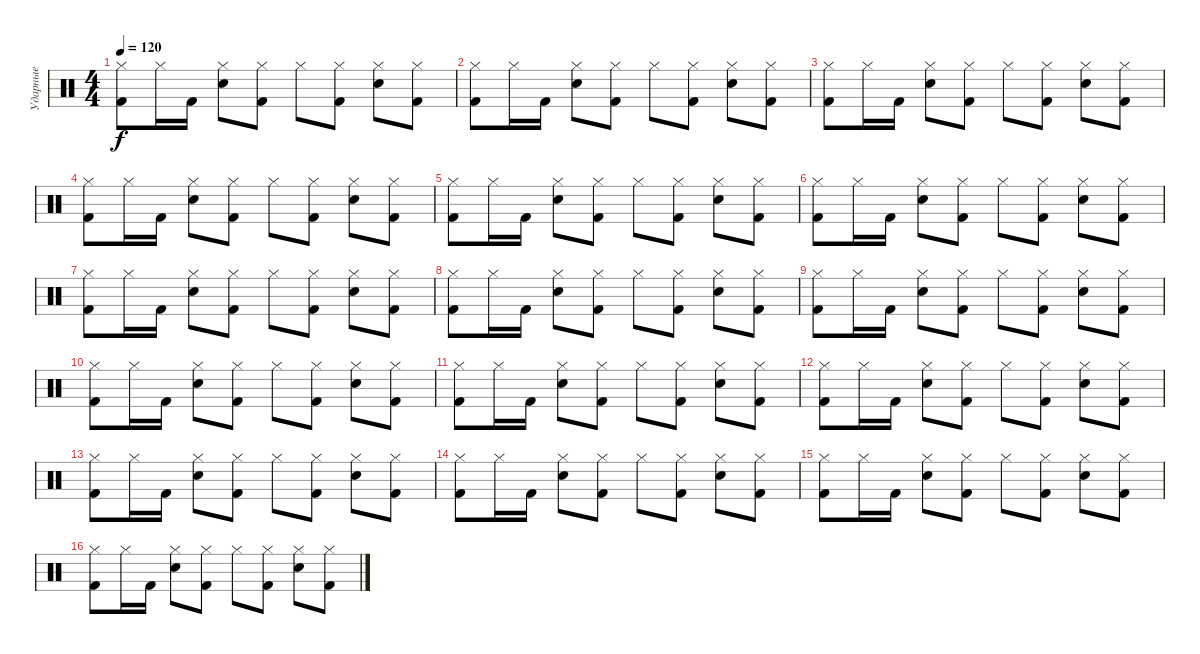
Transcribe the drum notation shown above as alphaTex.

\track ("Ударные" "Ударные") {instrument percussion}
\staff {score}
\articulation defaults
\ts (4 4)
\tempo 120
\clef neutral
\ks c
("Hi-Hat (closed)" "Kick (hit) 2").8{dy f} "Hi-Hat (closed)".16 "Kick (hit) 2".16 ("Hi-Hat (closed)" "Electric Snare (hit)").8 ("Hi-Hat (closed)" "Kick (hit) 2").8 "Hi-Hat (closed)".8 ("Hi-Hat (closed)" "Kick (hit) 2").8 ("Hi-Hat (closed)" "Electric Snare (hit)").8 ("Hi-Hat (closed)" "Kick (hit) 2").8 |
("Hi-Hat (closed)" "Kick (hit) 2").8 "Hi-Hat (closed)".16 "Kick (hit) 2".16 ("Hi-Hat (closed)" "Electric Snare (hit)").8 ("Hi-Hat (closed)" "Kick (hit) 2").8 "Hi-Hat (closed)".8 ("Hi-Hat (closed)" "Kick (hit) 2").8 ("Hi-Hat (closed)" "Electric Snare (hit)").8 ("Hi-Hat (closed)" "Kick (hit) 2").8 |
("Hi-Hat (closed)" "Kick (hit) 2").8 "Hi-Hat (closed)".16 "Kick (hit) 2".16 ("Hi-Hat (closed)" "Electric Snare (hit)").8 ("Hi-Hat (closed)" "Kick (hit) 2").8 "Hi-Hat (closed)".8 ("Hi-Hat (closed)" "Kick (hit) 2").8 ("Hi-Hat (closed)" "Electric Snare (hit)").8 ("Hi-Hat (closed)" "Kick (hit) 2").8 |
("Hi-Hat (closed)" "Kick (hit) 2").8 "Hi-Hat (closed)".16 "Kick (hit) 2".16 ("Hi-Hat (closed)" "Electric Snare (hit)").8 ("Hi-Hat (closed)" "Kick (hit) 2").8 "Hi-Hat (closed)".8 ("Hi-Hat (closed)" "Kick (hit) 2").8 ("Hi-Hat (closed)" "Electric Snare (hit)").8 ("Hi-Hat (closed)" "Kick (hit) 2").8 |
("Hi-Hat (closed)" "Kick (hit) 2").8 "Hi-Hat (closed)".16 "Kick (hit) 2".16 ("Hi-Hat (closed)" "Electric Snare (hit)").8 ("Hi-Hat (closed)" "Kick (hit) 2").8 "Hi-Hat (closed)".8 ("Hi-Hat (closed)" "Kick (hit) 2").8 ("Hi-Hat (closed)" "Electric Snare (hit)").8 ("Hi-Hat (closed)" "Kick (hit) 2").8 |
("Hi-Hat (closed)" "Kick (hit) 2").8 "Hi-Hat (closed)".16 "Kick (hit) 2".16 ("Hi-Hat (closed)" "Electric Snare (hit)").8 ("Hi-Hat (closed)" "Kick (hit) 2").8 "Hi-Hat (closed)".8 ("Hi-Hat (closed)" "Kick (hit) 2").8 ("Hi-Hat (closed)" "Electric Snare (hit)").8 ("Hi-Hat (closed)" "Kick (hit) 2").8 |
("Hi-Hat (closed)" "Kick (hit) 2").8 "Hi-Hat (closed)".16 "Kick (hit) 2".16 ("Hi-Hat (closed)" "Electric Snare (hit)").8 ("Hi-Hat (closed)" "Kick (hit) 2").8 "Hi-Hat (closed)".8 ("Hi-Hat (closed)" "Kick (hit) 2").8 ("Hi-Hat (closed)" "Electric Snare (hit)").8 ("Hi-Hat (closed)" "Kick (hit) 2").8 |
("Hi-Hat (closed)" "Kick (hit) 2").8 "Hi-Hat (closed)".16 "Kick (hit) 2".16 ("Hi-Hat (closed)" "Electric Snare (hit)").8 ("Hi-Hat (closed)" "Kick (hit) 2").8 "Hi-Hat (closed)".8 ("Hi-Hat (closed)" "Kick (hit) 2").8 ("Hi-Hat (closed)" "Electric Snare (hit)").8 ("Hi-Hat (closed)" "Kick (hit) 2").8 |
("Hi-Hat (closed)" "Kick (hit) 2").8 "Hi-Hat (closed)".16 "Kick (hit) 2".16 ("Hi-Hat (closed)" "Electric Snare (hit)").8 ("Hi-Hat (closed)" "Kick (hit) 2").8 "Hi-Hat (closed)".8 ("Hi-Hat (closed)" "Kick (hit) 2").8 ("Hi-Hat (closed)" "Electric Snare (hit)").8 ("Hi-Hat (closed)" "Kick (hit) 2").8 |
("Hi-Hat (closed)" "Kick (hit) 2").8 "Hi-Hat (closed)".16 "Kick (hit) 2".16 ("Hi-Hat (closed)" "Electric Snare (hit)").8 ("Hi-Hat (closed)" "Kick (hit) 2").8 "Hi-Hat (closed)".8 ("Hi-Hat (closed)" "Kick (hit) 2").8 ("Hi-Hat (closed)" "Electric Snare (hit)").8 ("Hi-Hat (closed)" "Kick (hit) 2").8 |
("Hi-Hat (closed)" "Kick (hit) 2").8 "Hi-Hat (closed)".16 "Kick (hit) 2".16 ("Hi-Hat (closed)" "Electric Snare (hit)").8 ("Hi-Hat (closed)" "Kick (hit) 2").8 "Hi-Hat (closed)".8 ("Hi-Hat (closed)" "Kick (hit) 2").8 ("Hi-Hat (closed)" "Electric Snare (hit)").8 ("Hi-Hat (closed)" "Kick (hit) 2").8 |
("Hi-Hat (closed)" "Kick (hit) 2").8 "Hi-Hat (closed)".16 "Kick (hit) 2".16 ("Hi-Hat (closed)" "Electric Snare (hit)").8 ("Hi-Hat (closed)" "Kick (hit) 2").8 "Hi-Hat (closed)".8 ("Hi-Hat (closed)" "Kick (hit) 2").8 ("Hi-Hat (closed)" "Electric Snare (hit)").8 ("Hi-Hat (closed)" "Kick (hit) 2").8 |
("Hi-Hat (closed)" "Kick (hit) 2").8 "Hi-Hat (closed)".16 "Kick (hit) 2".16 ("Hi-Hat (closed)" "Electric Snare (hit)").8 ("Hi-Hat (closed)" "Kick (hit) 2").8 "Hi-Hat (closed)".8 ("Hi-Hat (closed)" "Kick (hit) 2").8 ("Hi-Hat (closed)" "Electric Snare (hit)").8 ("Hi-Hat (closed)" "Kick (hit) 2").8 |
("Hi-Hat (closed)" "Kick (hit) 2").8 "Hi-Hat (closed)".16 "Kick (hit) 2".16 ("Hi-Hat (closed)" "Electric Snare (hit)").8 ("Hi-Hat (closed)" "Kick (hit) 2").8 "Hi-Hat (closed)".8 ("Hi-Hat (closed)" "Kick (hit) 2").8 ("Hi-Hat (closed)" "Electric Snare (hit)").8 ("Hi-Hat (closed)" "Kick (hit) 2").8 |
("Hi-Hat (closed)" "Kick (hit) 2").8 "Hi-Hat (closed)".16 "Kick (hit) 2".16 ("Hi-Hat (closed)" "Electric Snare (hit)").8 ("Hi-Hat (closed)" "Kick (hit) 2").8 "Hi-Hat (closed)".8 ("Hi-Hat (closed)" "Kick (hit) 2").8 ("Hi-Hat (closed)" "Electric Snare (hit)").8 ("Hi-Hat (closed)" "Kick (hit) 2").8 |
("Hi-Hat (closed)" "Kick (hit) 2").8 "Hi-Hat (closed)".16 "Kick (hit) 2".16 ("Hi-Hat (closed)" "Electric Snare (hit)").8 ("Hi-Hat (closed)" "Kick (hit) 2").8 "Hi-Hat (closed)".8 ("Hi-Hat (closed)" "Kick (hit) 2").8 ("Hi-Hat (closed)" "Electric Snare (hit)").8 ("Hi-Hat (closed)" "Kick (hit) 2").8
